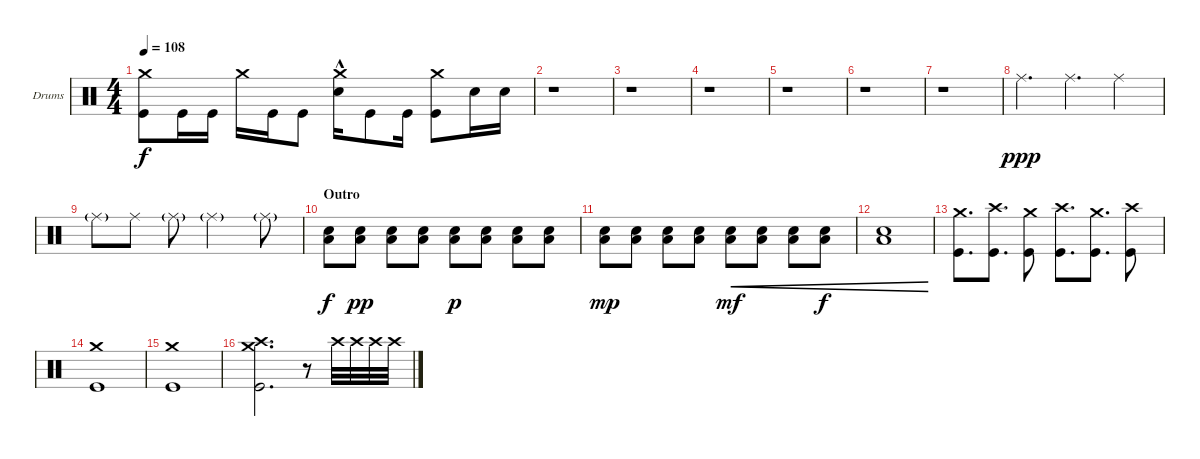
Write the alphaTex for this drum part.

\defaultSystemsLayout 4
\bracketExtendMode groupsimilarinstruments
\firstSystemTrackNameOrientation horizontal
\otherSystemsTrackNameOrientation horizontal
\track ("Drumkit " "Drums") {instrument percussion}
\staff {score}
\articulation defaults
\ts (4 4)
\tempo 108
\clef neutral
\ks c
("Kick (hit)" "Crash medium (hit)").8{dy f} "Kick (hit)".16 "Kick (hit)".16 "Crash medium (hit)".16 "Kick (hit)".16 "Kick (hit)".8 ("Snare (hit) 2"{hac} "Crash medium (hit)").16 "Kick (hit)".8 "Kick (hit)".16 ("Kick (hit)" "Crash medium (hit)").8 "Snare (hit) 2".16 "Snare (hit) 2".16 |
r.1 |
r.1 |
r.1 |
r.1 |
r.1 |
r.1 |
"Ride (middle)".4{d dy ppp} "Ride (middle)".4{d} "Ride (middle)".4 |
"Ride (middle)"{g}.8 "Ride (middle)".8 "Ride (middle)"{g}.8 "Ride (middle)"{g}.2 "Ride (middle)"{g}.8 |
\section ("" "Outro")
("Snare (hit) 2" "Low Tom (hit)").8{dy f} ("Snare (hit) 2" "Low Tom (hit)").8{dy pp} ("Snare (hit) 2" "Low Tom (hit)").8 ("Snare (hit) 2" "Low Tom (hit)").8 ("Snare (hit) 2" "Low Tom (hit)").8{dy p} ("Snare (hit) 2" "Low Tom (hit)").8 ("Snare (hit) 2" "Low Tom (hit)").8 ("Snare (hit) 2" "Low Tom (hit)").8 |
("Snare (hit) 2" "Low Tom (hit)").8{dy mp} ("Snare (hit) 2" "Low Tom (hit)").8 ("Snare (hit) 2" "Low Tom (hit)").8 ("Snare (hit) 2" "Low Tom (hit)").8 ("Snare (hit) 2" "Low Tom (hit)").8{cre dy mf} ("Snare (hit) 2" "Low Tom (hit)").8{cre} ("Snare (hit) 2" "Low Tom (hit)").8{cre} ("Snare (hit) 2" "Low Tom (hit)").8{cre dy f} |
("Snare (hit) 2" "Low Tom (hit)").1{cre} |
("Kick (hit)" "Crash medium (hit)").8{d} ("Kick (hit)" "Crash high (hit)").8{d} ("Kick (hit)" "Crash medium (hit)").8 ("Kick (hit)" "Crash high (hit)").8{d} ("Kick (hit)" "Crash medium (hit)").8{d} ("Kick (hit)" "Crash high (hit)").8 |
("Kick (hit)" "Crash medium (hit)").1 |
("Kick (hit)" "Crash medium (hit)").1 |
("Kick (hit)" "Crash medium (hit)" "Crash high (hit)").2{d} r.8 "Crash high (hit)".32 "Crash high (hit)".32 "Crash high (hit)".32 "Crash high (hit)".32
